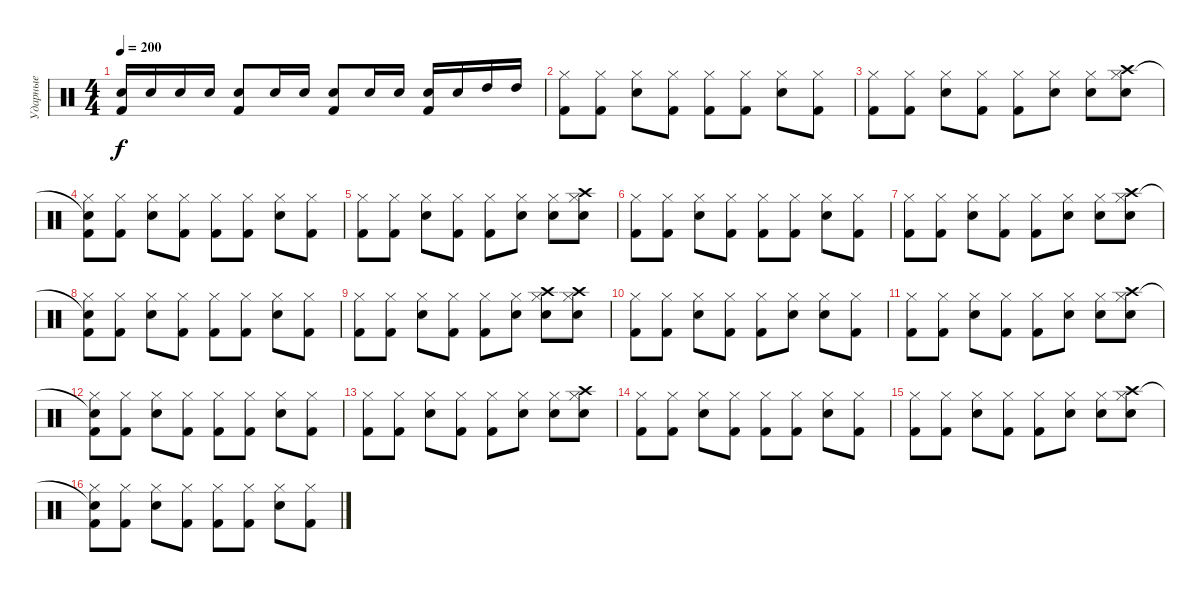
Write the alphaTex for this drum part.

\track ("Ударные" "Ударные") {instrument percussion}
\staff {score}
\articulation defaults
\ts (4 4)
\tempo 200
\clef neutral
\ks c
("Electric Snare (hit)" "Kick (hit) 2").16{dy f} "Electric Snare (hit)".16 "Electric Snare (hit)".16 "Electric Snare (hit)".16 ("Electric Snare (hit)" "Kick (hit) 2").8 "Electric Snare (hit)".16 "Electric Snare (hit)".16 ("Electric Snare (hit)" "Kick (hit) 2").8 "Electric Snare (hit)".16 "Electric Snare (hit)".16 ("Electric Snare (hit)" "Kick (hit) 2").16 "Electric Snare (hit)".16 "High Tom (hit)".16 "High Tom (hit)".16 |
("Hi-Hat (closed)" "Kick (hit) 2").8 ("Hi-Hat (closed)" "Kick (hit) 2").8 ("Hi-Hat (closed)" "Electric Snare (hit)").8 ("Hi-Hat (closed)" "Kick (hit) 2").8 ("Hi-Hat (closed)" "Kick (hit) 2").8 ("Hi-Hat (closed)" "Kick (hit) 2").8 ("Hi-Hat (closed)" "Electric Snare (hit)").8 ("Hi-Hat (closed)" "Kick (hit) 2").8 |
("Hi-Hat (closed)" "Kick (hit) 2").8 ("Hi-Hat (closed)" "Kick (hit) 2").8 ("Hi-Hat (closed)" "Electric Snare (hit)").8 ("Hi-Hat (closed)" "Kick (hit) 2").8 ("Hi-Hat (closed)" "Kick (hit) 2").8 ("Hi-Hat (closed)" "Electric Snare (hit)").8 ("Hi-Hat (closed)" "Electric Snare (hit)").8 ("Hi-Hat (closed)" "Crash high (hit)" "Electric Snare (hit)").8 |
("Snare (hit)"{t} "Hi-Hat (closed)" "Kick (hit) 2").8 ("Hi-Hat (closed)" "Kick (hit) 2").8 ("Hi-Hat (closed)" "Electric Snare (hit)").8 ("Hi-Hat (closed)" "Kick (hit) 2").8 ("Hi-Hat (closed)" "Kick (hit) 2").8 ("Hi-Hat (closed)" "Kick (hit) 2").8 ("Hi-Hat (closed)" "Electric Snare (hit)").8 ("Hi-Hat (closed)" "Kick (hit) 2").8 |
("Hi-Hat (closed)" "Kick (hit) 2").8 ("Hi-Hat (closed)" "Kick (hit) 2").8 ("Hi-Hat (closed)" "Electric Snare (hit)").8 ("Hi-Hat (closed)" "Kick (hit) 2").8 ("Hi-Hat (closed)" "Kick (hit) 2").8 ("Hi-Hat (closed)" "Electric Snare (hit)").8 ("Hi-Hat (closed)" "Electric Snare (hit)").8 ("Hi-Hat (closed)" "Crash high (hit)" "Electric Snare (hit)").8 |
("Hi-Hat (closed)" "Kick (hit) 2").8 ("Hi-Hat (closed)" "Kick (hit) 2").8 ("Hi-Hat (closed)" "Electric Snare (hit)").8 ("Hi-Hat (closed)" "Kick (hit) 2").8 ("Hi-Hat (closed)" "Kick (hit) 2").8 ("Hi-Hat (closed)" "Kick (hit) 2").8 ("Hi-Hat (closed)" "Electric Snare (hit)").8 ("Hi-Hat (closed)" "Kick (hit) 2").8 |
("Hi-Hat (closed)" "Kick (hit) 2").8 ("Hi-Hat (closed)" "Kick (hit) 2").8 ("Hi-Hat (closed)" "Electric Snare (hit)").8 ("Hi-Hat (closed)" "Kick (hit) 2").8 ("Hi-Hat (closed)" "Kick (hit) 2").8 ("Hi-Hat (closed)" "Electric Snare (hit)").8 ("Hi-Hat (closed)" "Electric Snare (hit)").8 ("Hi-Hat (closed)" "Crash high (hit)" "Electric Snare (hit)").8 |
("Snare (hit)"{t} "Hi-Hat (closed)" "Kick (hit) 2").8 ("Hi-Hat (closed)" "Kick (hit) 2").8 ("Hi-Hat (closed)" "Electric Snare (hit)").8 ("Hi-Hat (closed)" "Kick (hit) 2").8 ("Hi-Hat (closed)" "Kick (hit) 2").8 ("Hi-Hat (closed)" "Kick (hit) 2").8 ("Hi-Hat (closed)" "Electric Snare (hit)").8 ("Hi-Hat (closed)" "Kick (hit) 2").8 |
("Hi-Hat (closed)" "Kick (hit) 2").8 ("Hi-Hat (closed)" "Kick (hit) 2").8 ("Hi-Hat (closed)" "Electric Snare (hit)").8 ("Hi-Hat (closed)" "Kick (hit) 2").8 ("Hi-Hat (closed)" "Kick (hit) 2").8 ("Hi-Hat (closed)" "Electric Snare (hit)").8 ("Hi-Hat (closed)" "Crash high (hit)" "Electric Snare (hit)").8 ("Hi-Hat (closed)" "Crash high (hit)" "Electric Snare (hit)").8 |
("Hi-Hat (closed)" "Kick (hit) 2").8 ("Hi-Hat (closed)" "Kick (hit) 2").8 ("Hi-Hat (closed)" "Electric Snare (hit)").8 ("Hi-Hat (closed)" "Kick (hit) 2").8 ("Hi-Hat (closed)" "Kick (hit) 2").8 ("Hi-Hat (closed)" "Electric Snare (hit)").8 ("Hi-Hat (closed)" "Electric Snare (hit)").8 ("Hi-Hat (closed)" "Kick (hit) 2").8 |
("Hi-Hat (closed)" "Kick (hit) 2").8 ("Hi-Hat (closed)" "Kick (hit) 2").8 ("Hi-Hat (closed)" "Electric Snare (hit)").8 ("Hi-Hat (closed)" "Kick (hit) 2").8 ("Hi-Hat (closed)" "Kick (hit) 2").8 ("Hi-Hat (closed)" "Electric Snare (hit)").8 ("Hi-Hat (closed)" "Electric Snare (hit)").8 ("Hi-Hat (closed)" "Crash high (hit)" "Electric Snare (hit)").8 |
("Snare (hit)"{t} "Hi-Hat (closed)" "Kick (hit) 2").8 ("Hi-Hat (closed)" "Kick (hit) 2").8 ("Hi-Hat (closed)" "Electric Snare (hit)").8 ("Hi-Hat (closed)" "Kick (hit) 2").8 ("Hi-Hat (closed)" "Kick (hit) 2").8 ("Hi-Hat (closed)" "Kick (hit) 2").8 ("Hi-Hat (closed)" "Electric Snare (hit)").8 ("Hi-Hat (closed)" "Kick (hit) 2").8 |
("Hi-Hat (closed)" "Kick (hit) 2").8 ("Hi-Hat (closed)" "Kick (hit) 2").8 ("Hi-Hat (closed)" "Electric Snare (hit)").8 ("Hi-Hat (closed)" "Kick (hit) 2").8 ("Hi-Hat (closed)" "Kick (hit) 2").8 ("Hi-Hat (closed)" "Electric Snare (hit)").8 ("Hi-Hat (closed)" "Electric Snare (hit)").8 ("Hi-Hat (closed)" "Crash high (hit)" "Electric Snare (hit)").8 |
("Hi-Hat (closed)" "Kick (hit) 2").8 ("Hi-Hat (closed)" "Kick (hit) 2").8 ("Hi-Hat (closed)" "Electric Snare (hit)").8 ("Hi-Hat (closed)" "Kick (hit) 2").8 ("Hi-Hat (closed)" "Kick (hit) 2").8 ("Hi-Hat (closed)" "Kick (hit) 2").8 ("Hi-Hat (closed)" "Electric Snare (hit)").8 ("Hi-Hat (closed)" "Kick (hit) 2").8 |
("Hi-Hat (closed)" "Kick (hit) 2").8 ("Hi-Hat (closed)" "Kick (hit) 2").8 ("Hi-Hat (closed)" "Electric Snare (hit)").8 ("Hi-Hat (closed)" "Kick (hit) 2").8 ("Hi-Hat (closed)" "Kick (hit) 2").8 ("Hi-Hat (closed)" "Electric Snare (hit)").8 ("Hi-Hat (closed)" "Electric Snare (hit)").8 ("Hi-Hat (closed)" "Crash high (hit)" "Electric Snare (hit)").8 |
("Snare (hit)"{t} "Hi-Hat (closed)" "Kick (hit) 2").8 ("Hi-Hat (closed)" "Kick (hit) 2").8 ("Hi-Hat (closed)" "Electric Snare (hit)").8 ("Hi-Hat (closed)" "Kick (hit) 2").8 ("Hi-Hat (closed)" "Kick (hit) 2").8 ("Hi-Hat (closed)" "Kick (hit) 2").8 ("Hi-Hat (closed)" "Electric Snare (hit)").8 ("Hi-Hat (closed)" "Kick (hit) 2").8
